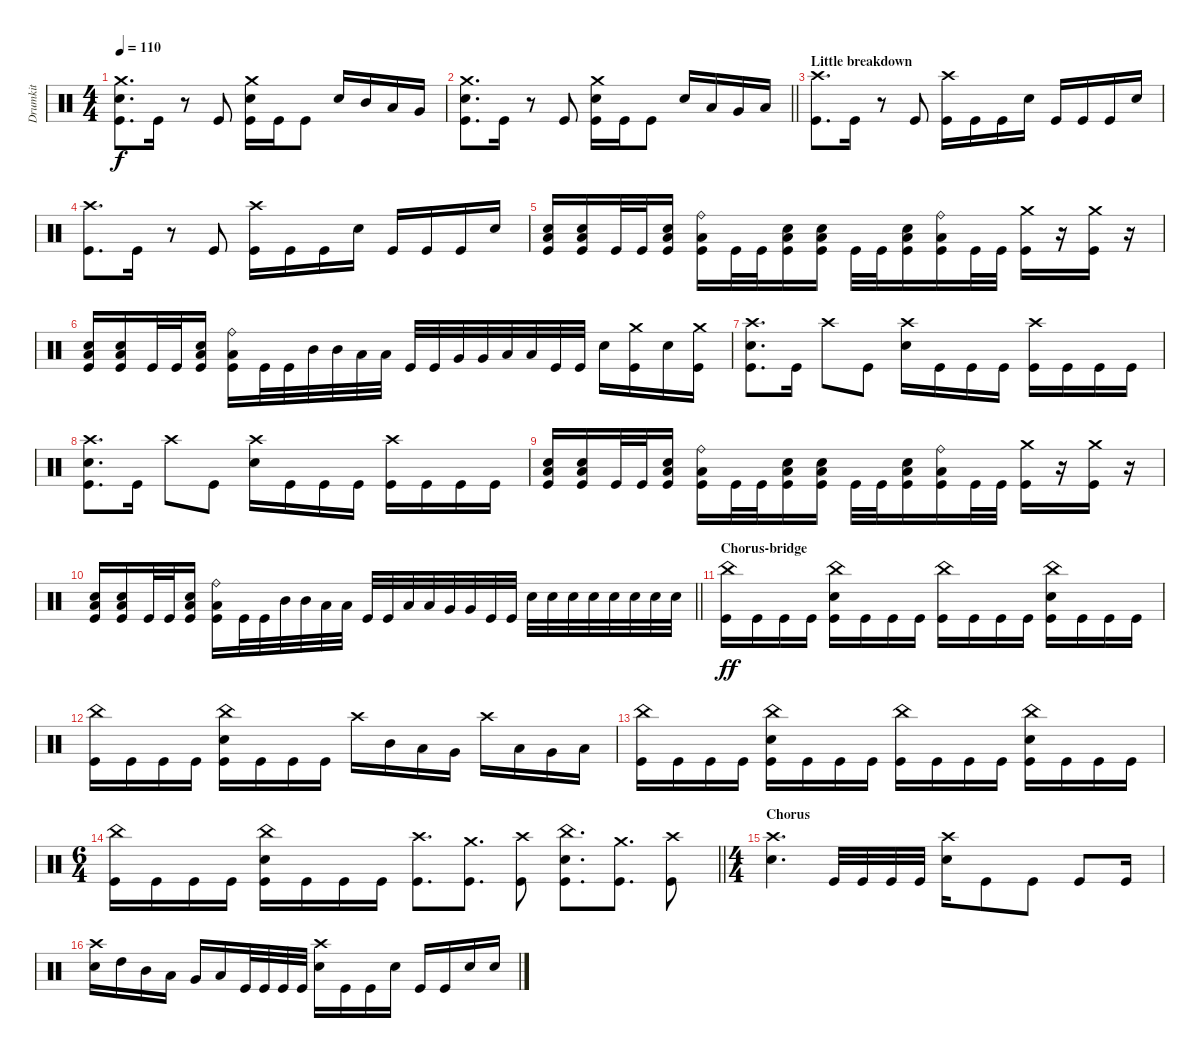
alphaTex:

\track ("Drumkit" "Drumkit") {instrument percussion}
\staff {score}
\articulation defaults
\ts (4 4)
\tempo 110
\clef neutral
\ks c
("Crash medium (hit)" "Snare (hit) 2" "Kick (hit)").8{d dy f} "Kick (hit)".16 r.8 "Kick (hit)".8 ("Crash medium (hit)" "Snare (hit) 2" "Kick (hit)").16 "Kick (hit)".16 "Kick (hit)".8 "Snare (hit) 2".16 "Mid Tom (hit)".16 "Low Tom (hit)".16 "Very Low Tom (hit)".16 |
\barLineRight lightlight
("Crash medium (hit)" "Snare (hit) 2" "Kick (hit)").8{d} "Kick (hit)".16 r.8 "Kick (hit)".8 ("Crash medium (hit)" "Snare (hit) 2" "Kick (hit)").16 "Kick (hit)".16 "Kick (hit)".8 "Snare (hit) 2".16 "Low Tom (hit)".16 "Very Low Tom (hit)".16 "Low Floor Tom (hit)".16 |
\section ("" "Little breakdown")
("Crash high (hit)" "Kick (hit)").8{d} "Kick (hit)".16 r.8 "Kick (hit)".8 ("Crash high (hit)" "Kick (hit)").16 "Kick (hit)".16 "Kick (hit)".16 "Snare (hit) 2".16 "Kick (hit)".16 "Kick (hit)".16 "Kick (hit)".16 "Snare (hit) 2".16 |
("Crash high (hit)" "Kick (hit)").8{d} "Kick (hit)".16 r.8 "Kick (hit)".8 ("Crash high (hit)" "Kick (hit)").16 "Kick (hit)".16 "Kick (hit)".16 "Snare (hit) 2".16 "Kick (hit)".16 "Kick (hit)".16 "Kick (hit)".16 "Snare (hit) 2".16 |
("Snare (hit) 2" "Kick (hit)" "Low Floor Tom (hit)").16 ("Snare (hit) 2" "Kick (hit)" "Low Floor Tom (hit)").16 "Kick (hit)".32 "Kick (hit)".32 ("Snare (hit) 2" "Kick (hit)" "Low Floor Tom (hit)").16 ("Kick (hit)" "Ride (bell)" "Low Floor Tom (hit)").16 "Kick (hit)".32 "Kick (hit)".32 ("Snare (hit) 2" "Kick (hit)" "Low Floor Tom (hit)").16 ("Snare (hit) 2" "Kick (hit)" "Low Floor Tom (hit)").16 "Kick (hit)".32 "Kick (hit)".32 ("Snare (hit) 2" "Kick (hit)" "Low Floor Tom (hit)").16 ("Kick (hit)" "Low Floor Tom (hit)" "Ride (bell)").16 "Kick (hit)".32 "Kick (hit)".32 ("Crash medium (hit)" "Kick (hit)").16 r.16 ("Crash medium (hit)" "Kick (hit)").16 r.16 |
("Snare (hit) 2" "Kick (hit)" "Low Floor Tom (hit)").16 ("Snare (hit) 2" "Kick (hit)" "Low Floor Tom (hit)").16 "Kick (hit)".32 "Kick (hit)".32 ("Snare (hit) 2" "Kick (hit)" "Low Floor Tom (hit)").16 ("Kick (hit)" "Ride (bell)" "Low Floor Tom (hit)").16 "Kick (hit)".32 "Kick (hit)".32 "Mid Tom (hit)".32 "Mid Tom (hit)".32 "Low Tom (hit)".32 "Low Tom (hit)".32 "Kick (hit)".32 "Kick (hit)".32 "Very Low Tom (hit)".32 "Very Low Tom (hit)".32 "Low Floor Tom (hit)".32 "Low Floor Tom (hit)".32 "Kick (hit)".32 "Kick (hit)".32 "Snare (hit) 2".16 ("Crash medium (hit)" "Kick (hit)").16 "Snare (hit) 2".16 ("Crash medium (hit)" "Kick (hit)").16 |
("Crash high (hit)" "Snare (hit) 2" "Kick (hit)").8{d} "Kick (hit)".16 "Crash high (hit)".8 "Kick (hit)".8 ("Crash high (hit)" "Snare (hit) 2").16 "Kick (hit)".16 "Kick (hit)".16 "Kick (hit)".16 ("Crash high (hit)" "Kick (hit)").16 "Kick (hit)".16 "Kick (hit)".16 "Kick (hit)".16 |
("Crash high (hit)" "Snare (hit) 2" "Kick (hit)").8{d} "Kick (hit)".16 "Crash high (hit)".8 "Kick (hit)".8 ("Crash high (hit)" "Snare (hit) 2").16 "Kick (hit)".16 "Kick (hit)".16 "Kick (hit)".16 ("Crash high (hit)" "Kick (hit)").16 "Kick (hit)".16 "Kick (hit)".16 "Kick (hit)".16 |
("Snare (hit) 2" "Kick (hit)" "Low Floor Tom (hit)").16 ("Snare (hit) 2" "Kick (hit)" "Low Floor Tom (hit)").16 "Kick (hit)".32 "Kick (hit)".32 ("Snare (hit) 2" "Kick (hit)" "Low Floor Tom (hit)").16 ("Kick (hit)" "Ride (bell)" "Low Floor Tom (hit)").16 "Kick (hit)".32 "Kick (hit)".32 ("Snare (hit) 2" "Kick (hit)" "Low Floor Tom (hit)").16 ("Snare (hit) 2" "Kick (hit)" "Low Floor Tom (hit)").16 "Kick (hit)".32 "Kick (hit)".32 ("Snare (hit) 2" "Kick (hit)" "Low Floor Tom (hit)").16 ("Kick (hit)" "Low Floor Tom (hit)" "Ride (bell)").16 "Kick (hit)".32 "Kick (hit)".32 ("Crash medium (hit)" "Kick (hit)").16 r.16 ("Crash medium (hit)" "Kick (hit)").16 r.16 |
\barLineRight lightlight
("Snare (hit) 2" "Kick (hit)" "Low Floor Tom (hit)").16 ("Snare (hit) 2" "Kick (hit)" "Low Floor Tom (hit)").16 "Kick (hit)".32 "Kick (hit)".32 ("Snare (hit) 2" "Kick (hit)" "Low Floor Tom (hit)").16 ("Kick (hit)" "Ride (bell)" "Low Floor Tom (hit)").16 "Kick (hit)".32 "Kick (hit)".32 "Mid Tom (hit)".32 "Mid Tom (hit)".32 "Low Tom (hit)".32 "Low Tom (hit)".32 "Kick (hit)".32 "Kick (hit)".32 "Low Tom (hit)".32 "Low Tom (hit)".32 "Very Low Tom (hit)".32 "Very Low Tom (hit)".32 "Kick (hit)".32 "Kick (hit)".32 "Snare (hit) 2".32 "Snare (hit) 2".32 "Snare (hit) 2".32 "Snare (hit) 2".32 "Snare (hit) 2".32 "Snare (hit) 2".32 "Snare (hit) 2".32 "Snare (hit) 2".32 |
\section ("" "Chorus-bridge")
("China (hit)" "Kick (hit)").16{dy ff} "Kick (hit)".16 "Kick (hit)".16 "Kick (hit)".16 ("China (hit)" "Snare (hit) 2" "Kick (hit)").16 "Kick (hit)".16 "Kick (hit)".16 "Kick (hit)".16 ("China (hit)" "Kick (hit)").16 "Kick (hit)".16 "Kick (hit)".16 "Kick (hit)".16 ("China (hit)" "Snare (hit) 2" "Kick (hit)").16 "Kick (hit)".16 "Kick (hit)".16 "Kick (hit)".16 |
("China (hit)" "Kick (hit)").16 "Kick (hit)".16 "Kick (hit)".16 "Kick (hit)".16 ("China (hit)" "Snare (hit) 2" "Kick (hit)").16 "Kick (hit)".16 "Kick (hit)".16 "Kick (hit)".16 "Crash high (hit)".16 "Mid Tom (hit)".16 "Low Tom (hit)".16 "Very Low Tom (hit)".16 "Crash high (hit)".16 "Low Tom (hit)".16 "Very Low Tom (hit)".16 "Low Floor Tom (hit)".16 |
("China (hit)" "Kick (hit)").16 "Kick (hit)".16 "Kick (hit)".16 "Kick (hit)".16 ("China (hit)" "Snare (hit) 2" "Kick (hit)").16 "Kick (hit)".16 "Kick (hit)".16 "Kick (hit)".16 ("China (hit)" "Kick (hit)").16 "Kick (hit)".16 "Kick (hit)".16 "Kick (hit)".16 ("China (hit)" "Snare (hit) 2" "Kick (hit)").16 "Kick (hit)".16 "Kick (hit)".16 "Kick (hit)".16 |
\ts (6 4)
\barLineRight lightlight
("China (hit)" "Kick (hit)").16 "Kick (hit)".16 "Kick (hit)".16 "Kick (hit)".16 ("China (hit)" "Snare (hit) 2" "Kick (hit)").16 "Kick (hit)".16 "Kick (hit)".16 "Kick (hit)".16 ("Kick (hit)" "Crash high (hit)").8{d} ("Kick (hit)" "Crash medium (hit)").8{d} ("Kick (hit)" "Crash high (hit)").8 ("Kick (hit)" "China (hit)" "Snare (hit) 2").8{d} ("Kick (hit)" "Crash medium (hit)").8{d} ("Kick (hit)" "Crash high (hit)").8 |
\ts (4 4)
\section ("" "Chorus")
("Crash high (hit)" "Snare (hit) 2").4{d} "Kick (hit)".32 "Kick (hit)".32 "Kick (hit)".32 "Kick (hit)".32 ("Crash high (hit)" "Snare (hit) 2").16 "Kick (hit)".8 "Kick (hit)".8 "Kick (hit)".8 "Kick (hit)".16 |
("Crash high (hit)" "Snare (hit) 2").16 "High Tom (hit)".16 "Mid Tom (hit)".16 "Low Tom (hit)".16 "Very Low Tom (hit)".16 "Low Floor Tom (hit)".16 "Kick (hit)".32 "Kick (hit)".32 "Kick (hit)".32 "Kick (hit)".32 ("Crash high (hit)" "Snare (hit) 2").16 "Kick (hit)".16 "Kick (hit)".16 "Snare (hit) 2".16 "Kick (hit)".16 "Kick (hit)".16 "Snare (hit) 2".16 "Snare (hit) 2".16
